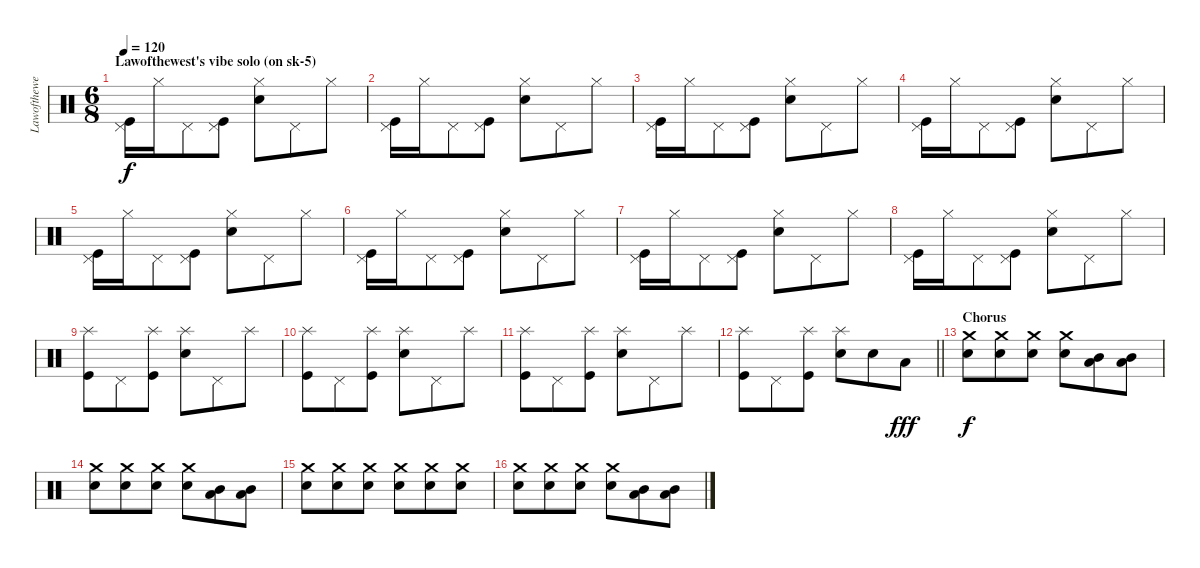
\track ("Lawofthewest (drums)" "Lawofthewe") {instrument percussion}
\staff {score}
\articulation defaults
\ts (6 8)
\section ("" "Lawofthewest's vibe solo (on sk-5)")
\tempo 120
\clef neutral
\ks c
("Pedal Hi-Hat (hit)" "Kick (hit)").16{dy f} "Hi-Hat (closed)".16 "Pedal Hi-Hat (hit)".8 ("Pedal Hi-Hat (hit)" "Kick (hit)").8 ("Hi-Hat (closed)" "Snare (hit) 2").8 "Pedal Hi-Hat (hit)".8 "Hi-Hat (closed)".8 |
("Pedal Hi-Hat (hit)" "Kick (hit)").16 "Hi-Hat (closed)".16 "Pedal Hi-Hat (hit)".8 ("Pedal Hi-Hat (hit)" "Kick (hit)").8 ("Hi-Hat (closed)" "Snare (hit) 2").8 "Pedal Hi-Hat (hit)".8 "Hi-Hat (closed)".8 |
("Pedal Hi-Hat (hit)" "Kick (hit)").16 "Hi-Hat (closed)".16 "Pedal Hi-Hat (hit)".8 ("Pedal Hi-Hat (hit)" "Kick (hit)").8 ("Hi-Hat (closed)" "Snare (hit) 2").8 "Pedal Hi-Hat (hit)".8 "Hi-Hat (closed)".8 |
("Pedal Hi-Hat (hit)" "Kick (hit)").16 "Hi-Hat (closed)".16 "Pedal Hi-Hat (hit)".8 ("Pedal Hi-Hat (hit)" "Kick (hit)").8 ("Hi-Hat (closed)" "Snare (hit) 2").8 "Pedal Hi-Hat (hit)".8 "Hi-Hat (closed)".8 |
("Pedal Hi-Hat (hit)" "Kick (hit)").16 "Hi-Hat (closed)".16 "Pedal Hi-Hat (hit)".8 ("Pedal Hi-Hat (hit)" "Kick (hit)").8 ("Hi-Hat (closed)" "Snare (hit) 2").8 "Pedal Hi-Hat (hit)".8 "Hi-Hat (closed)".8 |
("Pedal Hi-Hat (hit)" "Kick (hit)").16 "Hi-Hat (closed)".16 "Pedal Hi-Hat (hit)".8 ("Pedal Hi-Hat (hit)" "Kick (hit)").8 ("Hi-Hat (closed)" "Snare (hit) 2").8 "Pedal Hi-Hat (hit)".8 "Hi-Hat (closed)".8 |
("Pedal Hi-Hat (hit)" "Kick (hit)").16 "Hi-Hat (closed)".16 "Pedal Hi-Hat (hit)".8 ("Pedal Hi-Hat (hit)" "Kick (hit)").8 ("Hi-Hat (closed)" "Snare (hit) 2").8 "Pedal Hi-Hat (hit)".8 "Hi-Hat (closed)".8 |
("Pedal Hi-Hat (hit)" "Kick (hit)").16 "Hi-Hat (closed)".16 "Pedal Hi-Hat (hit)".8 ("Pedal Hi-Hat (hit)" "Kick (hit)").8 ("Hi-Hat (closed)" "Snare (hit) 2").8 "Pedal Hi-Hat (hit)".8 "Hi-Hat (closed)".8 |
("Splash (hit)" "Kick (hit)").8 "Pedal Hi-Hat (hit)".8 ("Splash (hit)" "Kick (hit)").8 ("Splash (hit)" "Snare (hit) 2").8 "Pedal Hi-Hat (hit)".8 "Splash (hit)".8 |
("Splash (hit)" "Kick (hit)").8 "Pedal Hi-Hat (hit)".8 ("Splash (hit)" "Kick (hit)").8 ("Splash (hit)" "Snare (hit) 2").8 "Pedal Hi-Hat (hit)".8 "Splash (hit)".8 |
("Splash (hit)" "Kick (hit)").8 "Pedal Hi-Hat (hit)".8 ("Splash (hit)" "Kick (hit)").8 ("Splash (hit)" "Snare (hit) 2").8 "Pedal Hi-Hat (hit)".8 "Splash (hit)".8 |
\barLineRight lightlight
("Splash (hit)" "Kick (hit)").8 "Pedal Hi-Hat (hit)".8 ("Splash (hit)" "Kick (hit)").8 ("Splash (hit)" "Snare (hit) 2").8 "Snare (hit) 2".8 "Low Tom (hit)".8{dy fff} |
\section ("" "Chorus")
("Crash medium (hit)" "Snare (hit) 2").8{dy f} ("Crash medium (hit)" "Snare (hit) 2").8 ("Crash medium (hit)" "Snare (hit) 2").8 ("Crash medium (hit)" "Snare (hit) 2").8 ("Mid Tom (hit)" "Low Tom (hit)").8 ("Mid Tom (hit)" "Low Tom (hit)").8 |
("Crash medium (hit)" "Snare (hit) 2").8 ("Crash medium (hit)" "Snare (hit) 2").8 ("Crash medium (hit)" "Snare (hit) 2").8 ("Crash medium (hit)" "Snare (hit) 2").8 ("Mid Tom (hit)" "Low Tom (hit)").8 ("Mid Tom (hit)" "Low Tom (hit)").8 |
("Crash medium (hit)" "Snare (hit) 2").8 ("Crash medium (hit)" "Snare (hit) 2").8 ("Crash medium (hit)" "Snare (hit) 2").8 ("Crash medium (hit)" "Snare (hit) 2").8 ("Crash medium (hit)" "Snare (hit) 2").8 ("Crash medium (hit)" "Snare (hit) 2").8 |
("Crash medium (hit)" "Snare (hit) 2").8 ("Crash medium (hit)" "Snare (hit) 2").8 ("Crash medium (hit)" "Snare (hit) 2").8 ("Crash medium (hit)" "Snare (hit) 2").8 ("Mid Tom (hit)" "Low Tom (hit)").8 ("Mid Tom (hit)" "Low Tom (hit)").8
